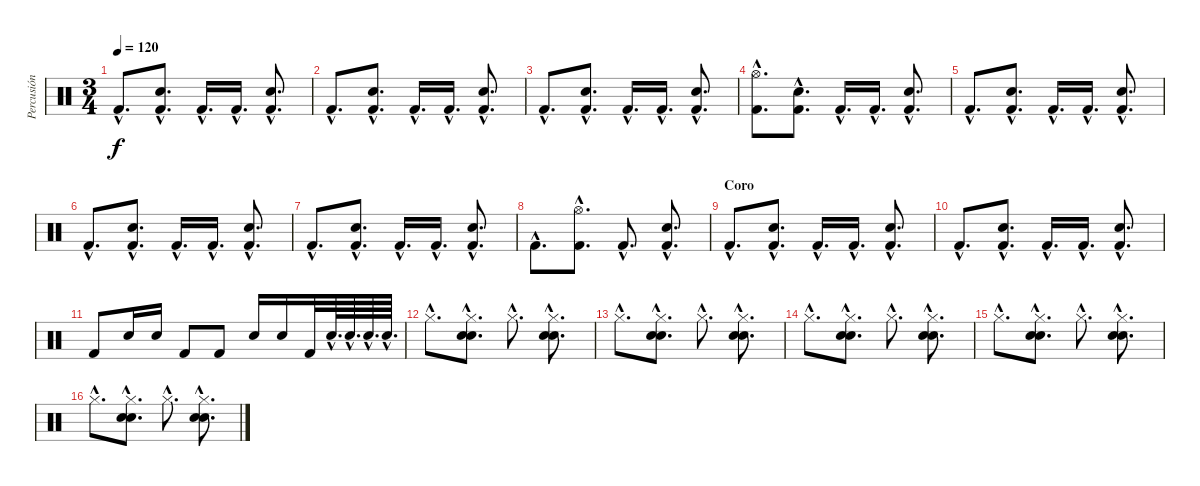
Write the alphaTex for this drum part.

\track ("Percusión" "Percusión") {instrument percussion}
\staff {score}
\articulation defaults
\ts (3 4)
\tempo 120
\clef neutral
\ks c "Kick (hit) 2"{hac}.8{d dy f}
("Electric Snare (hit)"{hac} "Kick (hit) 2"{hac}).8{d} "Kick (hit) 2"{hac}.16{d} "Kick (hit) 2"{hac}.16{d} ("Electric Snare (hit)"{hac} "Kick (hit) 2"{hac}).8{d} |
"Kick (hit) 2"{hac}.8{d} ("Electric Snare (hit)"{hac} "Kick (hit) 2"{hac}).8{d} "Kick (hit) 2"{hac}.16{d} "Kick (hit) 2"{hac}.16{d} ("Electric Snare (hit)"{hac} "Kick (hit) 2"{hac}).8{d} |
"Kick (hit) 2"{hac}.8{d} ("Electric Snare (hit)"{hac} "Kick (hit) 2"{hac}).8{d} "Kick (hit) 2"{hac}.16{d} "Kick (hit) 2"{hac}.16{d} ("Electric Snare (hit)"{hac} "Kick (hit) 2"{hac}).8{d} |
("Hi-Hat (open)"{hac} "Kick (hit) 2"{hac}).8{d} ("Electric Snare (hit)"{hac} "Kick (hit) 2"{hac}).8{d} "Kick (hit) 2"{hac}.16{d} "Kick (hit) 2"{hac}.16{d} ("Electric Snare (hit)"{hac} "Kick (hit) 2"{hac}).8{d} |
"Kick (hit) 2"{hac}.8{d} ("Electric Snare (hit)"{hac} "Kick (hit) 2"{hac}).8{d} "Kick (hit) 2"{hac}.16{d} "Kick (hit) 2"{hac}.16{d} ("Electric Snare (hit)"{hac} "Kick (hit) 2"{hac}).8{d} |
"Kick (hit) 2"{hac}.8{d} ("Electric Snare (hit)"{hac} "Kick (hit) 2"{hac}).8{d} "Kick (hit) 2"{hac}.16{d} "Kick (hit) 2"{hac}.16{d} ("Electric Snare (hit)"{hac} "Kick (hit) 2"{hac}).8{d} |
"Kick (hit) 2"{hac}.8{d} ("Electric Snare (hit)"{hac} "Kick (hit) 2"{hac}).8{d} "Kick (hit) 2"{hac}.16{d} "Kick (hit) 2"{hac}.16{d} ("Electric Snare (hit)"{hac} "Kick (hit) 2"{hac}).8{d} |
"Kick (hit) 2"{hac}.8{d} ("Hi-Hat (open)"{hac} "Kick (hit) 2"{hac}).8{d} "Kick (hit) 2"{hac}.8{d} ("Electric Snare (hit)"{hac} "Kick (hit) 2"{hac}).8{d} |
\section ("" "Coro")
"Kick (hit) 2"{hac}.8{d} ("Electric Snare (hit)"{hac} "Kick (hit) 2"{hac}).8{d} "Kick (hit) 2"{hac}.16{d} "Kick (hit) 2"{hac}.16{d} ("Electric Snare (hit)"{hac} "Kick (hit) 2"{hac}).8{d} |
"Kick (hit) 2"{hac}.8{d} ("Electric Snare (hit)"{hac} "Kick (hit) 2"{hac}).8{d} "Kick (hit) 2"{hac}.16{d} "Kick (hit) 2"{hac}.16{d} ("Electric Snare (hit)"{hac} "Kick (hit) 2"{hac}).8{d} |
"Kick (hit) 2".8 "Electric Snare (hit)".16 "Electric Snare (hit)".16 "Kick (hit) 2".8 "Kick (hit) 2".8 "Electric Snare (hit)".16 "Electric Snare (hit)".16 "Kick (hit) 2".32 "Electric Snare (hit)"{hac}.64{d} "Electric Snare (hit)"{hac}.64{d} "Electric Snare (hit)"{hac}.64{d} "Electric Snare (hit)"{hac}.64{d} |
"Hi-Hat (closed)"{hac}.8{d} ("Electric Snare (hit)"{hac} "Snare (hit) 2"{hac} "Hi-Hat (closed)"{hac}).8{d} "Hi-Hat (closed)"{hac}.8{d} ("Electric Snare (hit)"{hac} "Snare (hit) 2"{hac} "Hi-Hat (closed)"{hac}).8{d} |
"Hi-Hat (closed)"{hac}.8{d} ("Electric Snare (hit)"{hac} "Snare (hit) 2"{hac} "Hi-Hat (closed)"{hac}).8{d} "Hi-Hat (closed)"{hac}.8{d} ("Electric Snare (hit)"{hac} "Snare (hit) 2"{hac} "Hi-Hat (closed)"{hac}).8{d} |
"Hi-Hat (closed)"{hac}.8{d} ("Electric Snare (hit)"{hac} "Snare (hit) 2"{hac} "Hi-Hat (closed)"{hac}).8{d} "Hi-Hat (closed)"{hac}.8{d} ("Electric Snare (hit)"{hac} "Snare (hit) 2"{hac} "Hi-Hat (closed)"{hac}).8{d} |
"Hi-Hat (closed)"{hac}.8{d} ("Electric Snare (hit)"{hac} "Snare (hit) 2"{hac} "Hi-Hat (closed)"{hac}).8{d} "Hi-Hat (closed)"{hac}.8{d} ("Electric Snare (hit)"{hac} "Snare (hit) 2"{hac} "Hi-Hat (closed)"{hac}).8{d} |
"Hi-Hat (closed)"{hac}.8{d} ("Electric Snare (hit)"{hac} "Snare (hit) 2"{hac} "Hi-Hat (closed)"{hac}).8{d} "Hi-Hat (closed)"{hac}.8{d} ("Electric Snare (hit)"{hac} "Snare (hit) 2"{hac} "Hi-Hat (closed)"{hac}).8{d}
